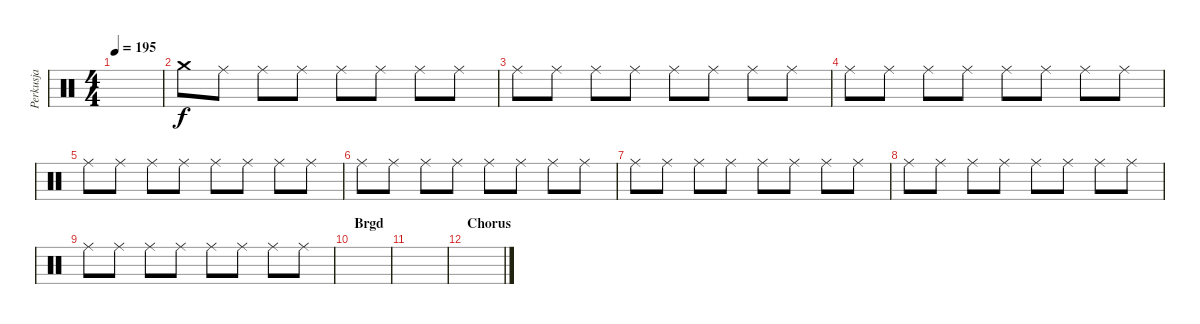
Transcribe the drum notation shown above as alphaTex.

\track ("Perkusja" "Perkusja") {instrument percussion}
\staff {score}
\articulation defaults
\ts (4 4)
\tempo 195
\clef neutral
\ks c
|
"Crash medium (hit)".8 "Ride (middle)".8 "Ride (middle)".8 "Ride (middle)".8 "Ride (middle)".8 "Ride (middle)".8 "Ride (middle)".8 "Ride (middle)".8 |
"Ride (middle)".8 "Ride (middle)".8 "Ride (middle)".8 "Ride (middle)".8 "Ride (middle)".8 "Ride (middle)".8 "Ride (middle)".8 "Ride (middle)".8 |
"Ride (middle)".8 "Ride (middle)".8 "Ride (middle)".8 "Ride (middle)".8 "Ride (middle)".8 "Ride (middle)".8 "Ride (middle)".8 "Ride (middle)".8 |
"Ride (middle)".8 "Ride (middle)".8 "Ride (middle)".8 "Ride (middle)".8 "Ride (middle)".8 "Ride (middle)".8 "Ride (middle)".8 "Ride (middle)".8 |
"Ride (middle)".8 "Ride (middle)".8 "Ride (middle)".8 "Ride (middle)".8 "Ride (middle)".8 "Ride (middle)".8 "Ride (middle)".8 "Ride (middle)".8 |
"Ride (middle)".8 "Ride (middle)".8 "Ride (middle)".8 "Ride (middle)".8 "Ride (middle)".8 "Ride (middle)".8 "Ride (middle)".8 "Ride (middle)".8 |
"Ride (middle)".8 "Ride (middle)".8 "Ride (middle)".8 "Ride (middle)".8 "Ride (middle)".8 "Ride (middle)".8 "Ride (middle)".8 "Ride (middle)".8 |
"Ride (middle)".8 "Ride (middle)".8 "Ride (middle)".8 "Ride (middle)".8 "Ride (middle)".8 "Ride (middle)".8 "Ride (middle)".8 "Ride (middle)".8 |
\section ("" "Brgd")
|
|
\section ("" "Chorus")
